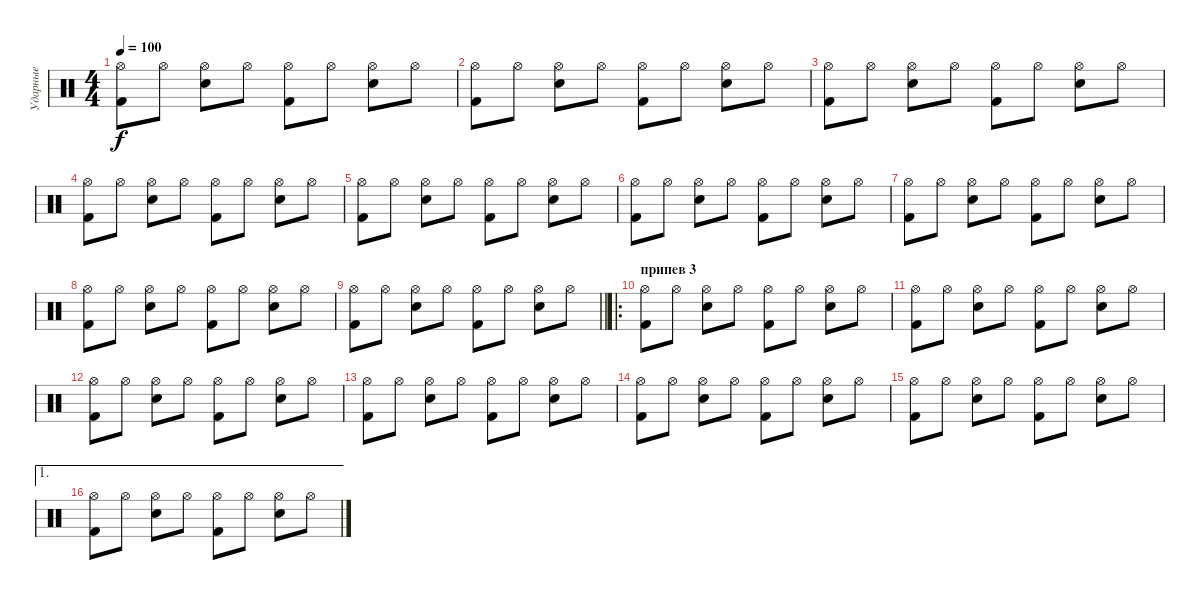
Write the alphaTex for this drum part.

\track ("Ударные" "Ударные") {instrument percussion}
\staff {score}
\articulation defaults
\ts (4 4)
\tempo 100
\clef neutral
\ks c
("Hi-Hat (open)" "Kick (hit) 2").8{dy f} "Hi-Hat (open)".8 ("Hi-Hat (open)" "Snare (hit) 2").8 "Hi-Hat (open)".8 ("Hi-Hat (open)" "Kick (hit) 2").8 "Hi-Hat (open)".8 ("Hi-Hat (open)" "Snare (hit) 2").8 "Hi-Hat (open)".8 |
("Hi-Hat (open)" "Kick (hit) 2").8 "Hi-Hat (open)".8 ("Hi-Hat (open)" "Snare (hit) 2").8 "Hi-Hat (open)".8 ("Hi-Hat (open)" "Kick (hit) 2").8 "Hi-Hat (open)".8 ("Hi-Hat (open)" "Snare (hit) 2").8 "Hi-Hat (open)".8 |
("Hi-Hat (open)" "Kick (hit) 2").8 "Hi-Hat (open)".8 ("Hi-Hat (open)" "Snare (hit) 2").8 "Hi-Hat (open)".8 ("Hi-Hat (open)" "Kick (hit) 2").8 "Hi-Hat (open)".8 ("Hi-Hat (open)" "Snare (hit) 2").8 "Hi-Hat (open)".8 |
("Hi-Hat (open)" "Kick (hit) 2").8 "Hi-Hat (open)".8 ("Hi-Hat (open)" "Snare (hit) 2").8 "Hi-Hat (open)".8 ("Hi-Hat (open)" "Kick (hit) 2").8 "Hi-Hat (open)".8 ("Hi-Hat (open)" "Snare (hit) 2").8 "Hi-Hat (open)".8 |
("Hi-Hat (open)" "Kick (hit) 2").8 "Hi-Hat (open)".8 ("Hi-Hat (open)" "Snare (hit) 2").8 "Hi-Hat (open)".8 ("Hi-Hat (open)" "Kick (hit) 2").8 "Hi-Hat (open)".8 ("Hi-Hat (open)" "Snare (hit) 2").8 "Hi-Hat (open)".8 |
("Hi-Hat (open)" "Kick (hit) 2").8 "Hi-Hat (open)".8 ("Hi-Hat (open)" "Snare (hit) 2").8 "Hi-Hat (open)".8 ("Hi-Hat (open)" "Kick (hit) 2").8 "Hi-Hat (open)".8 ("Hi-Hat (open)" "Snare (hit) 2").8 "Hi-Hat (open)".8 |
("Hi-Hat (open)" "Kick (hit) 2").8 "Hi-Hat (open)".8 ("Hi-Hat (open)" "Snare (hit) 2").8 "Hi-Hat (open)".8 ("Hi-Hat (open)" "Kick (hit) 2").8 "Hi-Hat (open)".8 ("Hi-Hat (open)" "Snare (hit) 2").8 "Hi-Hat (open)".8 |
("Hi-Hat (open)" "Kick (hit) 2").8 "Hi-Hat (open)".8 ("Hi-Hat (open)" "Snare (hit) 2").8 "Hi-Hat (open)".8 ("Hi-Hat (open)" "Kick (hit) 2").8 "Hi-Hat (open)".8 ("Hi-Hat (open)" "Snare (hit) 2").8 "Hi-Hat (open)".8 |
\barLineRight lightlight
("Hi-Hat (open)" "Kick (hit) 2").8 "Hi-Hat (open)".8 ("Hi-Hat (open)" "Snare (hit) 2").8 "Hi-Hat (open)".8 ("Hi-Hat (open)" "Kick (hit) 2").8 "Hi-Hat (open)".8 ("Hi-Hat (open)" "Snare (hit) 2").8 "Hi-Hat (open)".8 |
\ro
\section ("" "припев 3")
("Hi-Hat (open)" "Kick (hit) 2").8 "Hi-Hat (open)".8 ("Hi-Hat (open)" "Snare (hit) 2").8 "Hi-Hat (open)".8 ("Hi-Hat (open)" "Kick (hit) 2").8 "Hi-Hat (open)".8 ("Hi-Hat (open)" "Snare (hit) 2").8 "Hi-Hat (open)".8 |
("Hi-Hat (open)" "Kick (hit) 2").8 "Hi-Hat (open)".8 ("Hi-Hat (open)" "Snare (hit) 2").8 "Hi-Hat (open)".8 ("Hi-Hat (open)" "Kick (hit) 2").8 "Hi-Hat (open)".8 ("Hi-Hat (open)" "Snare (hit) 2").8 "Hi-Hat (open)".8 |
("Hi-Hat (open)" "Kick (hit) 2").8 "Hi-Hat (open)".8 ("Hi-Hat (open)" "Snare (hit) 2").8 "Hi-Hat (open)".8 ("Hi-Hat (open)" "Kick (hit) 2").8 "Hi-Hat (open)".8 ("Hi-Hat (open)" "Snare (hit) 2").8 "Hi-Hat (open)".8 |
("Hi-Hat (open)" "Kick (hit) 2").8 "Hi-Hat (open)".8 ("Hi-Hat (open)" "Snare (hit) 2").8 "Hi-Hat (open)".8 ("Hi-Hat (open)" "Kick (hit) 2").8 "Hi-Hat (open)".8 ("Hi-Hat (open)" "Snare (hit) 2").8 "Hi-Hat (open)".8 |
("Hi-Hat (open)" "Kick (hit) 2").8 "Hi-Hat (open)".8 ("Hi-Hat (open)" "Snare (hit) 2").8 "Hi-Hat (open)".8 ("Hi-Hat (open)" "Kick (hit) 2").8 "Hi-Hat (open)".8 ("Hi-Hat (open)" "Snare (hit) 2").8 "Hi-Hat (open)".8 |
("Hi-Hat (open)" "Kick (hit) 2").8 "Hi-Hat (open)".8 ("Hi-Hat (open)" "Snare (hit) 2").8 "Hi-Hat (open)".8 ("Hi-Hat (open)" "Kick (hit) 2").8 "Hi-Hat (open)".8 ("Hi-Hat (open)" "Snare (hit) 2").8 "Hi-Hat (open)".8 |
\ae 1
("Hi-Hat (open)" "Kick (hit) 2").8 "Hi-Hat (open)".8 ("Hi-Hat (open)" "Snare (hit) 2").8 "Hi-Hat (open)".8 ("Hi-Hat (open)" "Kick (hit) 2").8 "Hi-Hat (open)".8 ("Hi-Hat (open)" "Snare (hit) 2").8 "Hi-Hat (open)".8
